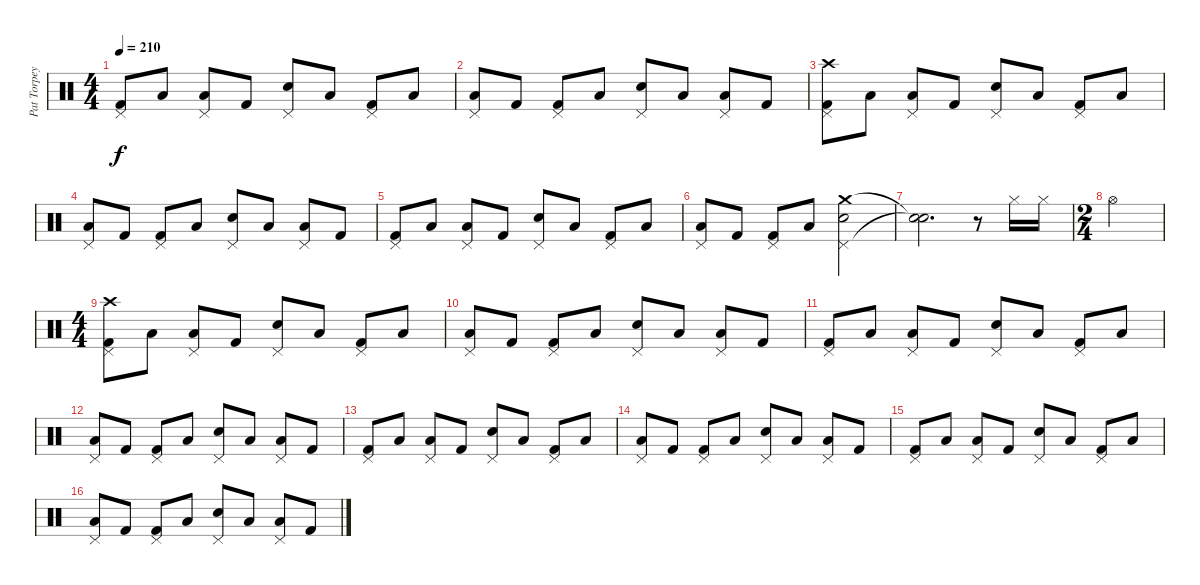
\track ("Pat Torpey" "Pat Torpey") {instrument percussion}
\staff {score}
\articulation defaults
\ts (4 4)
\tempo 210
\clef neutral
\ks c
("Pedal Hi-Hat (hit)" "Kick (hit) 2").8{dy f} "Low Floor Tom (hit)".8 ("Pedal Hi-Hat (hit)" "Low Floor Tom (hit)").8 "Kick (hit) 2".8 ("Pedal Hi-Hat (hit)" "Snare (hit) 2").8 "Low Floor Tom (hit)".8 ("Pedal Hi-Hat (hit)" "Kick (hit) 2").8 "Low Floor Tom (hit)".8 |
("Pedal Hi-Hat (hit)" "Low Floor Tom (hit)").8 "Kick (hit) 2".8 ("Pedal Hi-Hat (hit)" "Kick (hit) 2").8 "Low Floor Tom (hit)".8 ("Pedal Hi-Hat (hit)" "Snare (hit) 2").8 "Low Floor Tom (hit)".8 ("Pedal Hi-Hat (hit)" "Low Floor Tom (hit)").8 "Kick (hit) 2".8 |
("Crash high (hit)" "Pedal Hi-Hat (hit)" "Kick (hit) 2").8 "Low Floor Tom (hit)".8 ("Pedal Hi-Hat (hit)" "Low Floor Tom (hit)").8 "Kick (hit) 2".8 ("Pedal Hi-Hat (hit)" "Snare (hit) 2").8 "Low Floor Tom (hit)".8 ("Pedal Hi-Hat (hit)" "Kick (hit) 2").8 "Low Floor Tom (hit)".8 |
("Pedal Hi-Hat (hit)" "Low Floor Tom (hit)").8 "Kick (hit) 2".8 ("Pedal Hi-Hat (hit)" "Kick (hit) 2").8 "Low Floor Tom (hit)".8 ("Pedal Hi-Hat (hit)" "Snare (hit) 2").8 "Low Floor Tom (hit)".8 ("Pedal Hi-Hat (hit)" "Low Floor Tom (hit)").8 "Kick (hit) 2".8 |
("Pedal Hi-Hat (hit)" "Kick (hit) 2").8 "Low Floor Tom (hit)".8 ("Pedal Hi-Hat (hit)" "Low Floor Tom (hit)").8 "Kick (hit) 2".8 ("Pedal Hi-Hat (hit)" "Snare (hit) 2").8 "Low Floor Tom (hit)".8 ("Pedal Hi-Hat (hit)" "Kick (hit) 2").8 "Low Floor Tom (hit)".8 |
("Pedal Hi-Hat (hit)" "Low Floor Tom (hit)").8 "Kick (hit) 2".8 ("Pedal Hi-Hat (hit)" "Kick (hit) 2").8 "Low Floor Tom (hit)".8 ("Crash medium (hit)" "Pedal Hi-Hat (hit)" "Snare (hit) 2").2 |
("Snare (hit)"{t} "Snare (hit)"{t}).2{d} r.8 "Hi-Hat (closed)".16 "Hi-Hat (closed)".16 |
\ts (2 4)
"Hi-Hat (open)".2 |
\ts (4 4)
("Crash high (hit)" "Pedal Hi-Hat (hit)" "Kick (hit) 2").8 "Low Floor Tom (hit)".8 ("Pedal Hi-Hat (hit)" "Low Floor Tom (hit)").8 "Kick (hit) 2".8 ("Pedal Hi-Hat (hit)" "Snare (hit) 2").8 "Low Floor Tom (hit)".8 ("Pedal Hi-Hat (hit)" "Kick (hit) 2").8 "Low Floor Tom (hit)".8 |
("Pedal Hi-Hat (hit)" "Low Floor Tom (hit)").8 "Kick (hit) 2".8 ("Pedal Hi-Hat (hit)" "Kick (hit) 2").8 "Low Floor Tom (hit)".8 ("Pedal Hi-Hat (hit)" "Snare (hit) 2").8 "Low Floor Tom (hit)".8 ("Pedal Hi-Hat (hit)" "Low Floor Tom (hit)").8 "Kick (hit) 2".8 |
("Pedal Hi-Hat (hit)" "Kick (hit) 2").8 "Low Floor Tom (hit)".8 ("Pedal Hi-Hat (hit)" "Low Floor Tom (hit)").8 "Kick (hit) 2".8 ("Pedal Hi-Hat (hit)" "Snare (hit) 2").8 "Low Floor Tom (hit)".8 ("Pedal Hi-Hat (hit)" "Kick (hit) 2").8 "Low Floor Tom (hit)".8 |
("Pedal Hi-Hat (hit)" "Low Floor Tom (hit)").8 "Kick (hit) 2".8 ("Pedal Hi-Hat (hit)" "Kick (hit) 2").8 "Low Floor Tom (hit)".8 ("Pedal Hi-Hat (hit)" "Snare (hit) 2").8 "Low Floor Tom (hit)".8 ("Pedal Hi-Hat (hit)" "Low Floor Tom (hit)").8 "Kick (hit) 2".8 |
("Pedal Hi-Hat (hit)" "Kick (hit) 2").8 "Low Floor Tom (hit)".8 ("Pedal Hi-Hat (hit)" "Low Floor Tom (hit)").8 "Kick (hit) 2".8 ("Pedal Hi-Hat (hit)" "Snare (hit) 2").8 "Low Floor Tom (hit)".8 ("Pedal Hi-Hat (hit)" "Kick (hit) 2").8 "Low Floor Tom (hit)".8 |
("Pedal Hi-Hat (hit)" "Low Floor Tom (hit)").8 "Kick (hit) 2".8 ("Pedal Hi-Hat (hit)" "Kick (hit) 2").8 "Low Floor Tom (hit)".8 ("Pedal Hi-Hat (hit)" "Snare (hit) 2").8 "Low Floor Tom (hit)".8 ("Pedal Hi-Hat (hit)" "Low Floor Tom (hit)").8 "Kick (hit) 2".8 |
("Pedal Hi-Hat (hit)" "Kick (hit) 2").8 "Low Floor Tom (hit)".8 ("Pedal Hi-Hat (hit)" "Low Floor Tom (hit)").8 "Kick (hit) 2".8 ("Pedal Hi-Hat (hit)" "Snare (hit) 2").8 "Low Floor Tom (hit)".8 ("Pedal Hi-Hat (hit)" "Kick (hit) 2").8 "Low Floor Tom (hit)".8 |
("Pedal Hi-Hat (hit)" "Low Floor Tom (hit)").8 "Kick (hit) 2".8 ("Pedal Hi-Hat (hit)" "Kick (hit) 2").8 "Low Floor Tom (hit)".8 ("Pedal Hi-Hat (hit)" "Snare (hit) 2").8 "Low Floor Tom (hit)".8 ("Pedal Hi-Hat (hit)" "Low Floor Tom (hit)").8 "Kick (hit) 2".8
